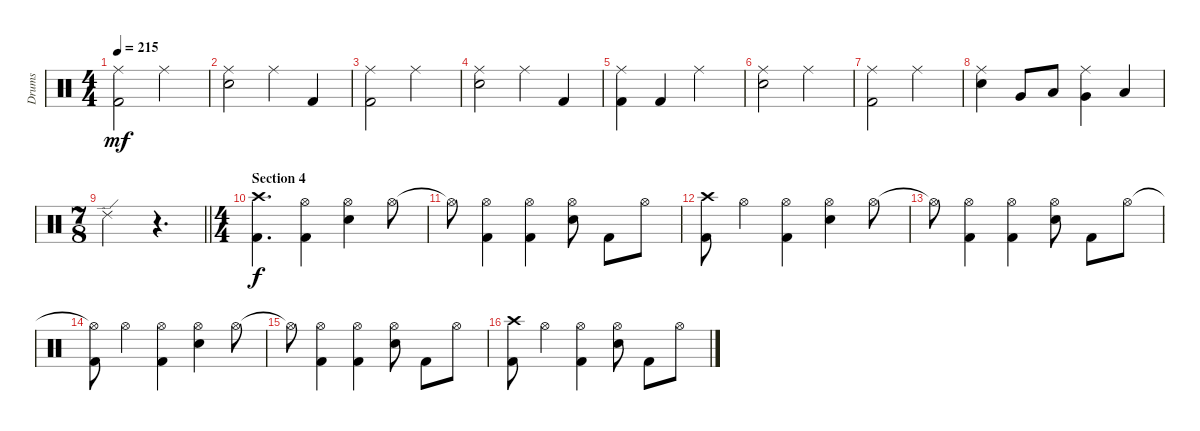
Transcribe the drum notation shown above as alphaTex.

\track ("Drums" "Drums") {instrument percussion}
\staff {score}
\articulation defaults
\ts (4 4)
\tempo 215
\clef neutral
\ks c
("Ride (middle)" "Kick (hit) 2").2{dy mf} "Ride (middle)".2 |
("Ride (middle)" "Snare (hit) 2").2 "Ride (middle)".4 "Kick (hit) 2".4 |
("Ride (middle)" "Kick (hit) 2").2 "Ride (middle)".2 |
("Ride (middle)" "Snare (hit) 2").2 "Ride (middle)".4 "Kick (hit) 2".4 |
("Ride (middle)" "Kick (hit) 2").4 "Kick (hit) 2".4 "Ride (middle)".2 |
("Ride (middle)" "Snare (hit) 2").2 "Ride (middle)".2 |
("Ride (middle)" "Kick (hit) 2").2 "Ride (middle)".2 |
("Ride (middle)" "Snare (hit) 2").4 "Very Low Tom (hit)".8 "Low Tom (hit)".8 ("Ride (middle)" "Very Low Tom (hit)").4 "Low Floor Tom (hit)".4 |
\ts (7 8)
\barLineRight lightlight "Ride (edge) 2".2
r.4{d} |
\ts (4 4)
\section ("" "Section 4")
("Crash high (hit)" "Kick (hit) 2").4{d dy f} ("Hi-Hat (open)" "Kick (hit) 2").4 ("Hi-Hat (open)" "Snare (hit) 2").4 "Hi-Hat (open)".8 |
"Hi-Hat (open)"{t}.8 ("Hi-Hat (open)" "Kick (hit) 2").4 ("Hi-Hat (open)" "Kick (hit) 2").4 ("Hi-Hat (open)" "Snare (hit) 2").8 "Kick (hit) 2".8 "Hi-Hat (open)".8 |
("Crash high (hit)" "Kick (hit) 2").8 "Hi-Hat (open)".4 ("Hi-Hat (open)" "Kick (hit) 2").4 ("Hi-Hat (open)" "Snare (hit) 2").4 "Hi-Hat (open)".8 |
"Hi-Hat (open)"{t}.8 ("Hi-Hat (open)" "Kick (hit) 2").4 ("Hi-Hat (open)" "Kick (hit) 2").4 ("Hi-Hat (open)" "Snare (hit) 2").8 "Kick (hit) 2".8 "Hi-Hat (open)".8 |
("Hi-Hat (open)"{t} "Kick (hit) 2").8 "Hi-Hat (open)".4 ("Hi-Hat (open)" "Kick (hit) 2").4 ("Hi-Hat (open)" "Snare (hit) 2").4 "Hi-Hat (open)".8 |
"Hi-Hat (open)"{t}.8 ("Hi-Hat (open)" "Kick (hit) 2").4 ("Hi-Hat (open)" "Kick (hit) 2").4 ("Hi-Hat (open)" "Snare (hit) 2").8 "Kick (hit) 2".8 "Hi-Hat (open)".8 |
("Crash high (hit)" "Kick (hit) 2").8 "Hi-Hat (open)".4 ("Hi-Hat (open)" "Kick (hit) 2").4 ("Hi-Hat (open)" "Snare (hit) 2").8 "Kick (hit) 2".8 "Hi-Hat (open)".8
